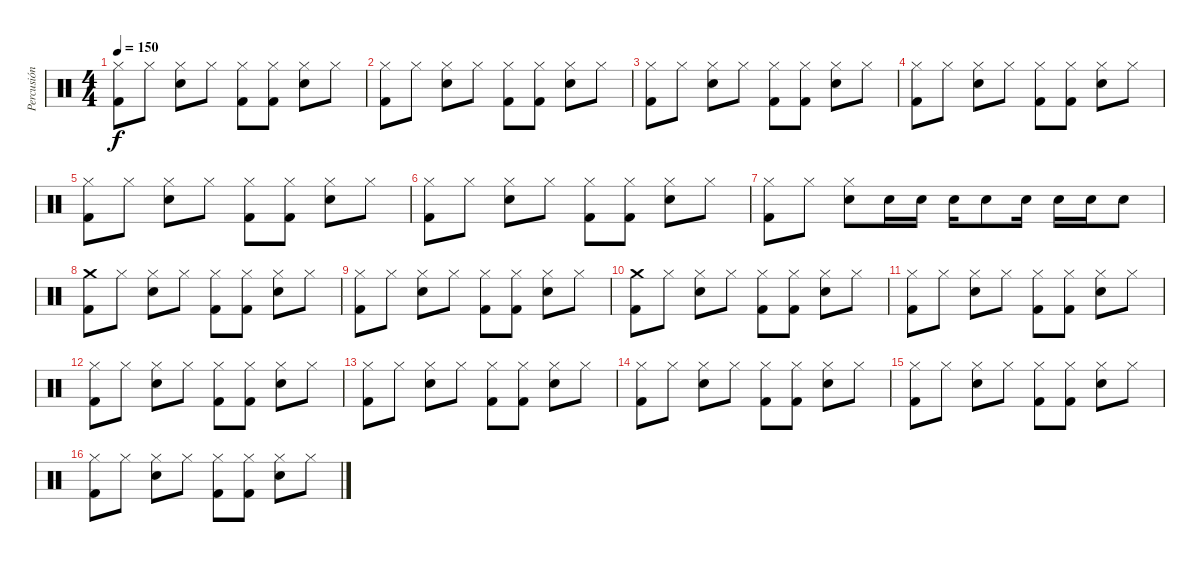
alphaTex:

\track ("Percusión" "Percusión") {instrument percussion}
\staff {score}
\articulation defaults
\ts (4 4)
\tempo 150
\clef neutral
\ks c
("Hi-Hat (closed)" "Kick (hit) 2").8{dy f} "Hi-Hat (closed)".8 ("Hi-Hat (closed)" "Snare (hit) 2").8 "Hi-Hat (closed)".8 ("Hi-Hat (closed)" "Kick (hit) 2").8 ("Hi-Hat (closed)" "Kick (hit) 2").8 ("Hi-Hat (closed)" "Snare (hit) 2").8 "Hi-Hat (closed)".8 |
("Hi-Hat (closed)" "Kick (hit) 2").8 "Hi-Hat (closed)".8 ("Hi-Hat (closed)" "Snare (hit) 2").8 "Hi-Hat (closed)".8 ("Hi-Hat (closed)" "Kick (hit) 2").8 ("Hi-Hat (closed)" "Kick (hit) 2").8 ("Hi-Hat (closed)" "Snare (hit) 2").8 "Hi-Hat (closed)".8 |
("Hi-Hat (closed)" "Kick (hit) 2").8 "Hi-Hat (closed)".8 ("Hi-Hat (closed)" "Snare (hit) 2").8 "Hi-Hat (closed)".8 ("Hi-Hat (closed)" "Kick (hit) 2").8 ("Hi-Hat (closed)" "Kick (hit) 2").8 ("Hi-Hat (closed)" "Snare (hit) 2").8 "Hi-Hat (closed)".8 |
("Hi-Hat (closed)" "Kick (hit) 2").8 "Hi-Hat (closed)".8 ("Hi-Hat (closed)" "Snare (hit) 2").8 "Hi-Hat (closed)".8 ("Hi-Hat (closed)" "Kick (hit) 2").8 ("Hi-Hat (closed)" "Kick (hit) 2").8 ("Hi-Hat (closed)" "Snare (hit) 2").8 "Hi-Hat (closed)".8 |
("Hi-Hat (closed)" "Kick (hit) 2").8 "Hi-Hat (closed)".8 ("Hi-Hat (closed)" "Snare (hit) 2").8 "Hi-Hat (closed)".8 ("Hi-Hat (closed)" "Kick (hit) 2").8 ("Hi-Hat (closed)" "Kick (hit) 2").8 ("Hi-Hat (closed)" "Snare (hit) 2").8 "Hi-Hat (closed)".8 |
("Hi-Hat (closed)" "Kick (hit) 2").8 "Hi-Hat (closed)".8 ("Hi-Hat (closed)" "Snare (hit) 2").8 "Hi-Hat (closed)".8 ("Hi-Hat (closed)" "Kick (hit) 2").8 ("Hi-Hat (closed)" "Kick (hit) 2").8 ("Hi-Hat (closed)" "Snare (hit) 2").8 "Hi-Hat (closed)".8 |
("Hi-Hat (closed)" "Kick (hit) 2").8 "Hi-Hat (closed)".8 ("Hi-Hat (closed)" "Snare (hit) 2").8 "Snare (hit) 2".16 "Snare (hit) 2".16 "Snare (hit) 2".16 "Snare (hit) 2".8 "Snare (hit) 2".16 "Snare (hit) 2".16 "Snare (hit) 2".16 "Snare (hit) 2".8 |
("Crash medium (hit)" "Kick (hit) 2").8 "Hi-Hat (closed)".8 ("Hi-Hat (closed)" "Snare (hit) 2").8 "Hi-Hat (closed)".8 ("Hi-Hat (closed)" "Kick (hit) 2").8 ("Hi-Hat (closed)" "Kick (hit) 2").8 ("Hi-Hat (closed)" "Snare (hit) 2").8 "Hi-Hat (closed)".8 |
("Hi-Hat (closed)" "Kick (hit) 2").8 "Hi-Hat (closed)".8 ("Hi-Hat (closed)" "Snare (hit) 2").8 "Hi-Hat (closed)".8 ("Hi-Hat (closed)" "Kick (hit) 2").8 ("Hi-Hat (closed)" "Kick (hit) 2").8 ("Hi-Hat (closed)" "Snare (hit) 2").8 "Hi-Hat (closed)".8 |
("Crash medium (hit)" "Kick (hit) 2").8 "Hi-Hat (closed)".8 ("Hi-Hat (closed)" "Snare (hit) 2").8 "Hi-Hat (closed)".8 ("Hi-Hat (closed)" "Kick (hit) 2").8 ("Hi-Hat (closed)" "Kick (hit) 2").8 ("Hi-Hat (closed)" "Snare (hit) 2").8 "Hi-Hat (closed)".8 |
("Hi-Hat (closed)" "Kick (hit) 2").8 "Hi-Hat (closed)".8 ("Hi-Hat (closed)" "Snare (hit) 2").8 "Hi-Hat (closed)".8 ("Hi-Hat (closed)" "Kick (hit) 2").8 ("Hi-Hat (closed)" "Kick (hit) 2").8 ("Hi-Hat (closed)" "Snare (hit) 2").8 "Hi-Hat (closed)".8 |
("Hi-Hat (closed)" "Kick (hit) 2").8 "Hi-Hat (closed)".8 ("Hi-Hat (closed)" "Snare (hit) 2").8 "Hi-Hat (closed)".8 ("Hi-Hat (closed)" "Kick (hit) 2").8 ("Hi-Hat (closed)" "Kick (hit) 2").8 ("Hi-Hat (closed)" "Snare (hit) 2").8 "Hi-Hat (closed)".8 |
("Hi-Hat (closed)" "Kick (hit) 2").8 "Hi-Hat (closed)".8 ("Hi-Hat (closed)" "Snare (hit) 2").8 "Hi-Hat (closed)".8 ("Hi-Hat (closed)" "Kick (hit) 2").8 ("Hi-Hat (closed)" "Kick (hit) 2").8 ("Hi-Hat (closed)" "Snare (hit) 2").8 "Hi-Hat (closed)".8 |
("Hi-Hat (closed)" "Kick (hit) 2").8 "Hi-Hat (closed)".8 ("Hi-Hat (closed)" "Snare (hit) 2").8 "Hi-Hat (closed)".8 ("Hi-Hat (closed)" "Kick (hit) 2").8 ("Hi-Hat (closed)" "Kick (hit) 2").8 ("Hi-Hat (closed)" "Snare (hit) 2").8 "Hi-Hat (closed)".8 |
("Hi-Hat (closed)" "Kick (hit) 2").8 "Hi-Hat (closed)".8 ("Hi-Hat (closed)" "Snare (hit) 2").8 "Hi-Hat (closed)".8 ("Hi-Hat (closed)" "Kick (hit) 2").8 ("Hi-Hat (closed)" "Kick (hit) 2").8 ("Hi-Hat (closed)" "Snare (hit) 2").8 "Hi-Hat (closed)".8 |
("Hi-Hat (closed)" "Kick (hit) 2").8 "Hi-Hat (closed)".8 ("Hi-Hat (closed)" "Snare (hit) 2").8 "Hi-Hat (closed)".8 ("Hi-Hat (closed)" "Kick (hit) 2").8 ("Hi-Hat (closed)" "Kick (hit) 2").8 ("Hi-Hat (closed)" "Snare (hit) 2").8 "Hi-Hat (closed)".8
